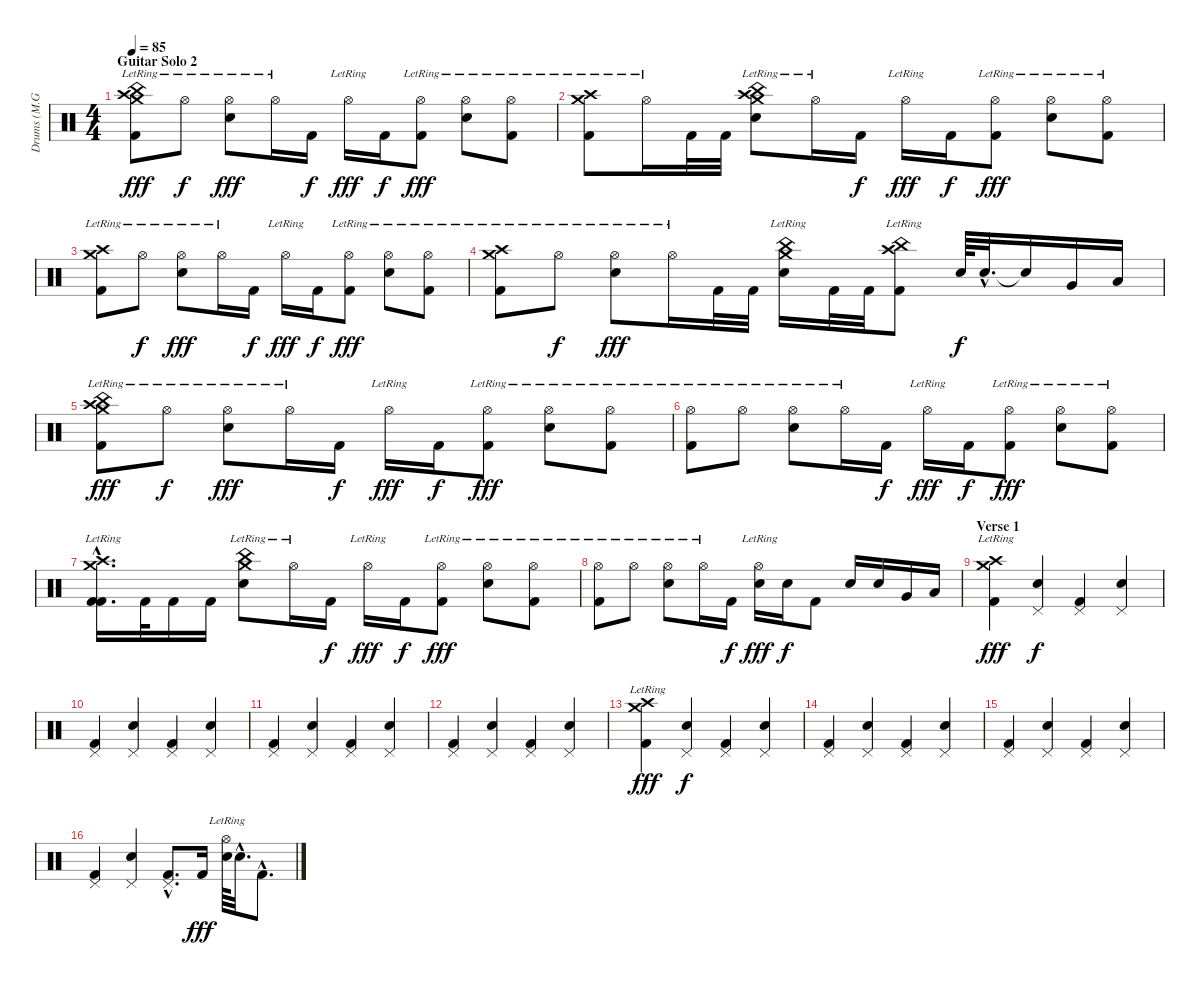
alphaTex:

\track ("Drums (M.Grosskopf)" "Drums (M.G") {instrument percussion}
\staff {score}
\articulation defaults
\ts (4 4)
\section ("" "Guitar Solo 2")
\tempo 85
\clef neutral
\ks c
("Crash high (hit)"{lr} "Crash medium (hit)"{lr} "Kick (hit) 2" "China (hit)"{lr}).8{dy fff} "Hi-Hat (open)"{lr}.8{dy f} ("Hi-Hat (open)"{lr} "Electric Snare (hit)").8{dy fff} "Hi-Hat (open)"{lr}.16 "Kick (hit) 2".16{dy f} "Hi-Hat (open)"{lr}.16{dy fff} "Kick (hit) 2".16{dy f} ("Hi-Hat (open)"{lr} "Kick (hit) 2").8{dy fff} ("Hi-Hat (open)"{lr} "Electric Snare (hit)").8 ("Hi-Hat (open)"{lr} "Kick (hit) 2").8 |
("Crash high (hit)"{lr} "Crash medium (hit)"{lr} "Kick (hit) 2").8 "Hi-Hat (open)"{lr}.16 "Kick (hit) 2".32 "Kick (hit) 2".32 ("Crash high (hit)"{lr} "Crash medium (hit)"{lr} "Electric Snare (hit)" "China (hit)"{lr}).8 "Hi-Hat (open)"{lr}.16 "Kick (hit) 2".16{dy f} "Hi-Hat (open)"{lr}.16{dy fff} "Kick (hit) 2".16{dy f} ("Hi-Hat (open)"{lr} "Kick (hit) 2").8{dy fff} ("Hi-Hat (open)"{lr} "Electric Snare (hit)").8 ("Hi-Hat (open)"{lr} "Kick (hit) 2").8 |
("Crash high (hit)"{lr} "Crash medium (hit)"{lr} "Kick (hit) 2").8 "Hi-Hat (open)"{lr}.8{dy f} ("Hi-Hat (open)"{lr} "Electric Snare (hit)").8{dy fff} "Hi-Hat (open)"{lr}.16 "Kick (hit) 2".16{dy f} "Hi-Hat (open)"{lr}.16{dy fff} "Kick (hit) 2".16{dy f} ("Hi-Hat (open)"{lr} "Kick (hit) 2").8{dy fff} ("Hi-Hat (open)"{lr} "Electric Snare (hit)").8 ("Hi-Hat (open)"{lr} "Kick (hit) 2").8 |
("Crash high (hit)"{lr} "Crash medium (hit)"{lr} "Kick (hit) 2").8 "Hi-Hat (open)"{lr}.8{dy f} ("Hi-Hat (open)"{lr} "Electric Snare (hit)").8{dy fff} "Hi-Hat (open)"{lr}.16 "Kick (hit) 2".32 "Kick (hit) 2".32 ("Crash medium (hit)"{lr} "China (hit)"{lr} "Electric Snare (hit)").16 "Kick (hit) 2".32 "Kick (hit) 2".32 ("Crash high (hit)"{lr} "China (hit)"{lr} "Kick (hit) 2").8 "Electric Snare (hit)".64{dy f} "Electric Snare (hit)"{hac}.32{d} "Snare (hit)"{t}.16 "Very Low Tom (hit)".16 "Low Floor Tom (hit)".16 |
("Crash high (hit)"{lr} "Crash medium (hit)"{lr} "Kick (hit) 2" "China (hit)"{lr}).8{dy fff} "Hi-Hat (open)"{lr}.8{dy f} ("Hi-Hat (open)"{lr} "Electric Snare (hit)").8{dy fff} "Hi-Hat (open)"{lr}.16 "Kick (hit) 2".16{dy f} "Hi-Hat (open)"{lr}.16{dy fff} "Kick (hit) 2".16{dy f} ("Hi-Hat (open)"{lr} "Kick (hit) 2").8{dy fff} ("Hi-Hat (open)"{lr} "Electric Snare (hit)").8 ("Hi-Hat (open)"{lr} "Kick (hit) 2").8 |
("Hi-Hat (open)"{lr} "Kick (hit) 2").8 "Hi-Hat (open)"{lr}.8 ("Hi-Hat (open)"{lr} "Electric Snare (hit)").8 "Hi-Hat (open)"{lr}.16 "Kick (hit) 2".16{dy f} "Hi-Hat (open)"{lr}.16{dy fff} "Kick (hit) 2".16{dy f} ("Hi-Hat (open)"{lr} "Kick (hit) 2").8{dy fff} ("Hi-Hat (open)"{lr} "Electric Snare (hit)").8 ("Hi-Hat (open)"{lr} "Kick (hit) 2").8 |
("Crash high (hit)"{hac lr} "Crash medium (hit)"{hac lr} "Kick (hit) 2"{hac} "Kick (hit) 2"{hac}).16{d} "Kick (hit) 2".32 "Kick (hit) 2".16 "Kick (hit) 2".16 ("China (hit)"{lr} "Crash medium (hit)"{lr} "Electric Snare (hit)").8 "Hi-Hat (open)"{lr}.16 "Kick (hit) 2".16{dy f} "Hi-Hat (open)"{lr}.16{dy fff} "Kick (hit) 2".16{dy f} ("Hi-Hat (open)"{lr} "Kick (hit) 2").8{dy fff} ("Hi-Hat (open)"{lr} "Electric Snare (hit)").8 ("Hi-Hat (open)"{lr} "Kick (hit) 2").8 |
("Hi-Hat (open)"{lr} "Kick (hit) 2").8 "Hi-Hat (open)"{lr}.8 ("Hi-Hat (open)"{lr} "Electric Snare (hit)").8 "Hi-Hat (open)"{lr}.16 "Kick (hit) 2".16{dy f} ("Hi-Hat (open)"{lr} "Electric Snare (hit)").16{dy fff} "Electric Snare (hit)".16{dy f} "Kick (hit) 2".8 "Electric Snare (hit)".16 "Electric Snare (hit)".16 "Very Low Tom (hit)".16 "Low Floor Tom (hit)".16 |
\section ("" "Verse 1")
("Crash high (hit)"{lr} "Crash medium (hit)"{lr} "Kick (hit) 2").4{dy fff} ("Pedal Hi-Hat (hit)" "Electric Snare (hit)").4{dy f} ("Pedal Hi-Hat (hit)" "Kick (hit) 2").4 ("Pedal Hi-Hat (hit)" "Electric Snare (hit)").4 |
("Pedal Hi-Hat (hit)" "Kick (hit) 2").4 ("Pedal Hi-Hat (hit)" "Electric Snare (hit)").4 ("Pedal Hi-Hat (hit)" "Kick (hit) 2").4 ("Pedal Hi-Hat (hit)" "Electric Snare (hit)").4 |
("Pedal Hi-Hat (hit)" "Kick (hit) 2").4 ("Pedal Hi-Hat (hit)" "Electric Snare (hit)").4 ("Pedal Hi-Hat (hit)" "Kick (hit) 2").4 ("Pedal Hi-Hat (hit)" "Electric Snare (hit)").4 |
("Pedal Hi-Hat (hit)" "Kick (hit) 2").4 ("Pedal Hi-Hat (hit)" "Electric Snare (hit)").4 ("Pedal Hi-Hat (hit)" "Kick (hit) 2").4 ("Pedal Hi-Hat (hit)" "Electric Snare (hit)").4 |
("Crash high (hit)"{lr} "Crash medium (hit)"{lr} "Kick (hit) 2").4{dy fff} ("Pedal Hi-Hat (hit)" "Electric Snare (hit)").4{dy f} ("Pedal Hi-Hat (hit)" "Kick (hit) 2").4 ("Pedal Hi-Hat (hit)" "Electric Snare (hit)").4 |
("Pedal Hi-Hat (hit)" "Kick (hit) 2").4 ("Pedal Hi-Hat (hit)" "Electric Snare (hit)").4 ("Pedal Hi-Hat (hit)" "Kick (hit) 2").4 ("Pedal Hi-Hat (hit)" "Electric Snare (hit)").4 |
("Pedal Hi-Hat (hit)" "Kick (hit) 2").4 ("Pedal Hi-Hat (hit)" "Electric Snare (hit)").4 ("Pedal Hi-Hat (hit)" "Kick (hit) 2").4 ("Pedal Hi-Hat (hit)" "Electric Snare (hit)").4 |
("Pedal Hi-Hat (hit)" "Kick (hit) 2").4 ("Pedal Hi-Hat (hit)" "Electric Snare (hit)").4 ("Pedal Hi-Hat (hit)"{hac} "Kick (hit) 2"{hac}).8{d} "Kick (hit) 2".16{dy fff} ("Hi-Hat (open)"{lr} "Electric Snare (hit)").64 "Electric Snare (hit)"{hac}.32{d} "Kick (hit) 2"{hac}.8{d}
